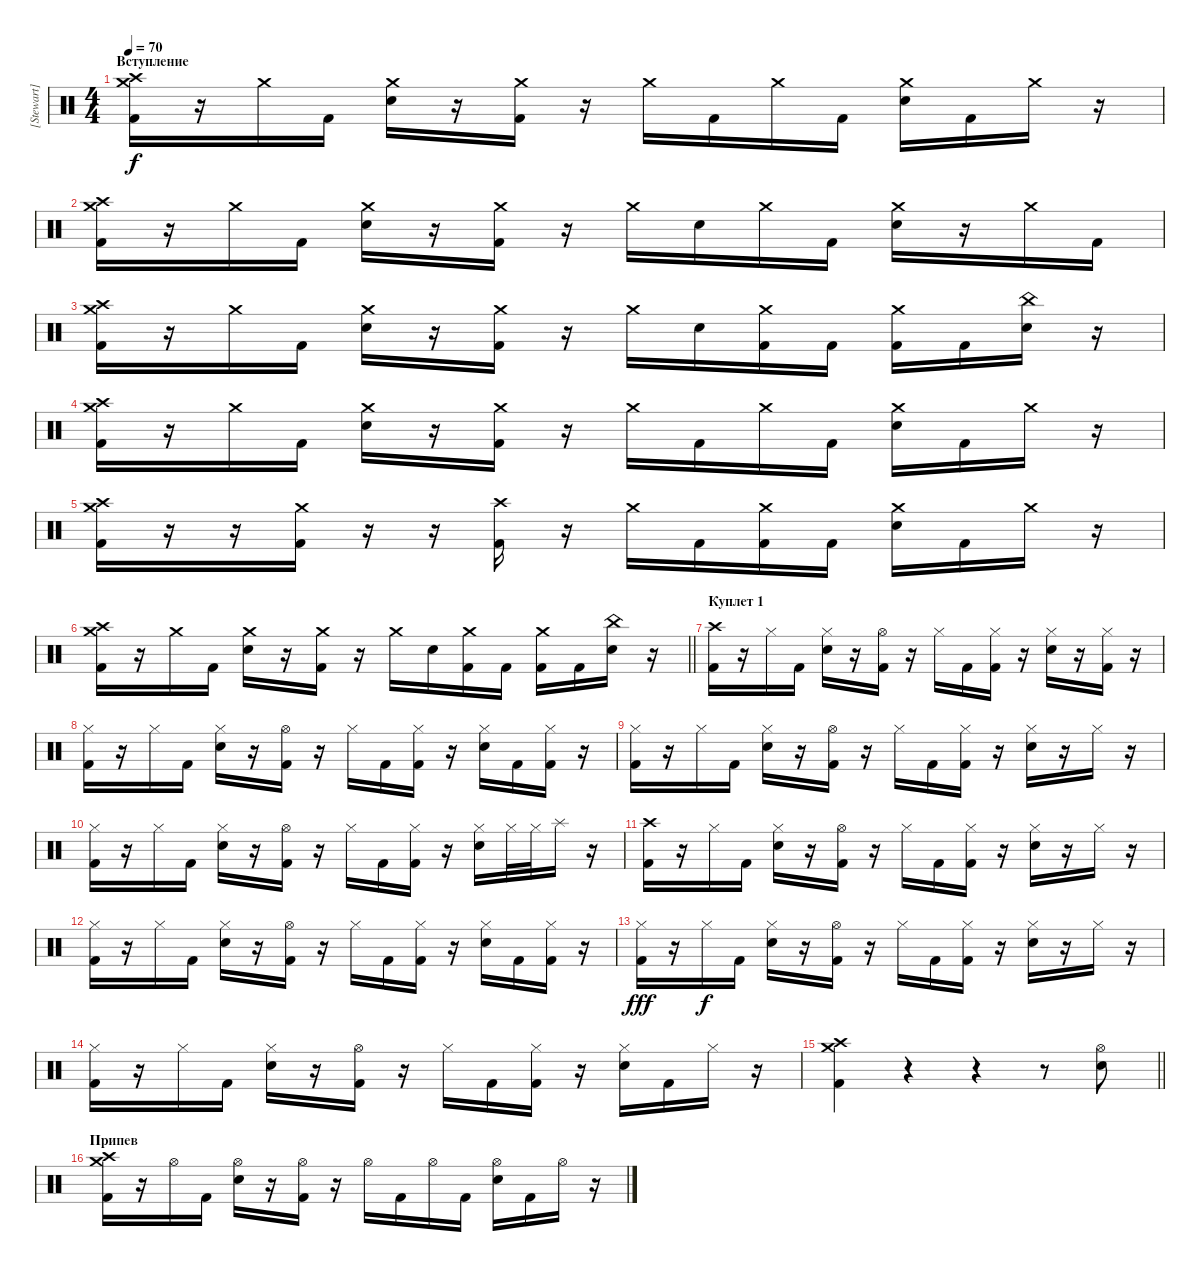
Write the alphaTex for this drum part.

\track ("[Stewart]" "[Stewart]") {instrument percussion}
\staff {score}
\articulation defaults
\ts (4 4)
\section ("" "Вступление")
\tempo 70
\clef neutral
\ks c
("Crash medium (hit)" "Crash high (hit)" "Kick (hit) 2").16{dy f} r.16 "Crash medium (hit)".16 "Kick (hit) 2".16 ("Crash medium (hit)" "Electric Snare (hit)").16 r.16 ("Crash medium (hit)" "Kick (hit) 2").16 r.16 "Crash medium (hit)".16 "Kick (hit) 2".16 "Crash medium (hit)".16 "Kick (hit) 2".16 ("Crash medium (hit)" "Electric Snare (hit)").16 "Kick (hit) 2".16 "Crash medium (hit)".16 r.16 |
("Crash medium (hit)" "Crash high (hit)" "Kick (hit) 2").16 r.16 "Crash medium (hit)".16 "Kick (hit) 2".16 ("Crash medium (hit)" "Electric Snare (hit)").16 r.16 ("Crash medium (hit)" "Kick (hit) 2").16 r.16 "Crash medium (hit)".16 "Electric Snare (hit)".16 "Crash medium (hit)".16 "Kick (hit) 2".16 ("Crash medium (hit)" "Electric Snare (hit)").16 r.16 "Crash medium (hit)".16 "Kick (hit) 2".16 |
("Crash medium (hit)" "Crash high (hit)" "Kick (hit) 2").16 r.16 "Crash medium (hit)".16 "Kick (hit) 2".16 ("Crash medium (hit)" "Electric Snare (hit)").16 r.16 ("Crash medium (hit)" "Kick (hit) 2").16 r.16 "Crash medium (hit)".16 "Electric Snare (hit)".16 ("Crash medium (hit)" "Kick (hit) 2").16 "Kick (hit) 2".16 ("Crash medium (hit)" "Kick (hit) 2").16 "Kick (hit) 2".16 ("China (hit)" "Electric Snare (hit)").16 r.16 |
("Crash medium (hit)" "Crash high (hit)" "Kick (hit) 2").16 r.16 "Crash medium (hit)".16 "Kick (hit) 2".16 ("Crash medium (hit)" "Electric Snare (hit)").16 r.16 ("Crash medium (hit)" "Kick (hit) 2").16 r.16 "Crash medium (hit)".16 "Kick (hit) 2".16 "Crash medium (hit)".16 "Kick (hit) 2".16 ("Crash medium (hit)" "Electric Snare (hit)").16 "Kick (hit) 2".16 "Crash medium (hit)".16 r.16 |
("Crash medium (hit)" "Crash high (hit)" "Kick (hit) 2").16 r.16 r.16 ("Crash medium (hit)" "Kick (hit) 2").16 r.16 r.16 ("Crash high (hit)" "Kick (hit) 2").16 r.16 "Crash medium (hit)".16 "Kick (hit) 2".16 ("Crash medium (hit)" "Kick (hit) 2").16 "Kick (hit) 2".16 ("Crash medium (hit)" "Electric Snare (hit)").16 "Kick (hit) 2".16 "Crash medium (hit)".16 r.16 |
\barLineRight lightlight
("Crash medium (hit)" "Crash high (hit)" "Kick (hit) 2").16 r.16 "Crash medium (hit)".16 "Kick (hit) 2".16 ("Crash medium (hit)" "Electric Snare (hit)").16 r.16 ("Crash medium (hit)" "Kick (hit) 2").16 r.16 "Crash medium (hit)".16 "Electric Snare (hit)".16 ("Crash medium (hit)" "Kick (hit) 2").16 "Kick (hit) 2".16 ("Crash medium (hit)" "Kick (hit) 2").16 "Kick (hit) 2".16 ("China (hit)" "Electric Snare (hit)").16 r.16 |
\section ("" "Куплет 1")
("Crash high (hit)" "Kick (hit) 2").16 r.16 "Hi-Hat (closed)".16 "Kick (hit) 2".16 ("Hi-Hat (closed)" "Electric Snare (hit)").16 r.16 ("Hi-Hat (open)" "Kick (hit) 2").16 r.16 "Hi-Hat (closed)".16 "Kick (hit) 2".16 ("Hi-Hat (closed)" "Kick (hit) 2").16 r.16 ("Hi-Hat (closed)" "Electric Snare (hit)").16 r.16 ("Hi-Hat (closed)" "Kick (hit) 2").16 r.16 |
("Hi-Hat (closed)" "Kick (hit) 2").16 r.16 "Hi-Hat (closed)".16 "Kick (hit) 2".16 ("Hi-Hat (closed)" "Electric Snare (hit)").16 r.16 ("Hi-Hat (open)" "Kick (hit) 2").16 r.16 "Hi-Hat (closed)".16 "Kick (hit) 2".16 ("Hi-Hat (closed)" "Kick (hit) 2").16 r.16 ("Hi-Hat (closed)" "Electric Snare (hit)").16 "Kick (hit) 2".16 ("Hi-Hat (closed)" "Kick (hit) 2").16 r.16 |
("Hi-Hat (closed)" "Kick (hit) 2").16 r.16 "Hi-Hat (closed)".16 "Kick (hit) 2".16 ("Hi-Hat (closed)" "Electric Snare (hit)").16 r.16 ("Hi-Hat (open)" "Kick (hit) 2").16 r.16 "Hi-Hat (closed)".16 "Kick (hit) 2".16 ("Hi-Hat (closed)" "Kick (hit) 2").16 r.16 ("Hi-Hat (closed)" "Electric Snare (hit)").16 r.16 "Hi-Hat (closed)".16 r.16 |
("Hi-Hat (closed)" "Kick (hit) 2").16 r.16 "Hi-Hat (closed)".16 "Kick (hit) 2".16 ("Hi-Hat (closed)" "Electric Snare (hit)").16 r.16 ("Hi-Hat (open)" "Kick (hit) 2").16 r.16 "Hi-Hat (closed)".16 "Kick (hit) 2".16 ("Hi-Hat (closed)" "Kick (hit) 2").16 r.16 ("Hi-Hat (closed)" "Electric Snare (hit)").16 "Hi-Hat (closed)".32 "Hi-Hat (closed)".32 "Splash (hit)".16 r.16 |
("Crash high (hit)" "Kick (hit) 2").16 r.16 "Hi-Hat (closed)".16 "Kick (hit) 2".16 ("Hi-Hat (closed)" "Electric Snare (hit)").16 r.16 ("Hi-Hat (open)" "Kick (hit) 2").16 r.16 "Hi-Hat (closed)".16 "Kick (hit) 2".16 ("Hi-Hat (closed)" "Kick (hit) 2").16 r.16 ("Hi-Hat (closed)" "Electric Snare (hit)").16 r.16 "Hi-Hat (closed)".16 r.16 |
("Hi-Hat (closed)" "Kick (hit) 2").16 r.16 "Hi-Hat (closed)".16 "Kick (hit) 2".16 ("Hi-Hat (closed)" "Electric Snare (hit)").16 r.16 ("Hi-Hat (open)" "Kick (hit) 2").16 r.16 "Hi-Hat (closed)".16 "Kick (hit) 2".16 ("Hi-Hat (closed)" "Kick (hit) 2").16 r.16 ("Hi-Hat (closed)" "Electric Snare (hit)").16 "Kick (hit) 2".16 ("Hi-Hat (closed)" "Kick (hit) 2").16 r.16 |
("Hi-Hat (closed)" "Kick (hit) 2").16{dy fff} r.16 "Hi-Hat (closed)".16{dy f} "Kick (hit) 2".16 ("Hi-Hat (closed)" "Electric Snare (hit)").16 r.16 ("Hi-Hat (open)" "Kick (hit) 2").16 r.16 "Hi-Hat (closed)".16 "Kick (hit) 2".16 ("Hi-Hat (closed)" "Kick (hit) 2").16 r.16 ("Hi-Hat (closed)" "Electric Snare (hit)").16 r.16 "Hi-Hat (closed)".16 r.16 |
("Hi-Hat (closed)" "Kick (hit) 2").16 r.16 "Hi-Hat (closed)".16 "Kick (hit) 2".16 ("Hi-Hat (closed)" "Electric Snare (hit)").16 r.16 ("Hi-Hat (open)" "Kick (hit) 2").16 r.16 "Hi-Hat (closed)".16 "Kick (hit) 2".16 ("Hi-Hat (closed)" "Kick (hit) 2").16 r.16 ("Hi-Hat (closed)" "Electric Snare (hit)").16 "Kick (hit) 2".16 "Hi-Hat (closed)".16 r.16 |
\barLineRight lightlight
("Crash medium (hit)" "Crash high (hit)" "Kick (hit) 2").4 r.4 r.4 r.8 ("Hi-Hat (open)" "Electric Snare (hit)").8 |
\section ("" "Припев")
("Crash medium (hit)" "Crash high (hit)" "Kick (hit) 2").16 r.16 "Hi-Hat (open)".16 "Kick (hit) 2".16 ("Hi-Hat (open)" "Electric Snare (hit)").16 r.16 ("Hi-Hat (open)" "Kick (hit) 2").16 r.16 "Hi-Hat (open)".16 "Kick (hit) 2".16 "Hi-Hat (open)".16 "Kick (hit) 2".16 ("Hi-Hat (open)" "Electric Snare (hit)").16 "Kick (hit) 2".16 "Hi-Hat (open)".16 r.16
